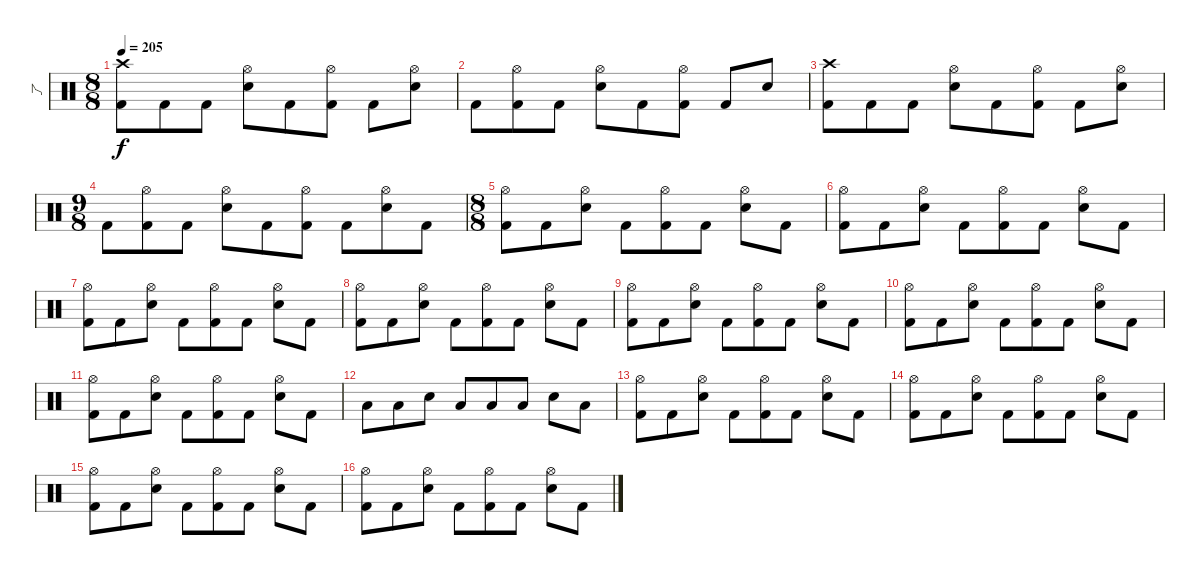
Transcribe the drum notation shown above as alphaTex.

\track ("了" "了") {instrument percussion}
\staff {score}
\articulation defaults
\ts (8 8)
\tempo 205
\clef neutral
\ks c
("Crash high (hit)" "Kick (hit) 2").8{dy f} "Kick (hit) 2".8 "Kick (hit) 2".8 ("Hi-Hat (open)" "Electric Snare (hit)").8 "Kick (hit) 2".8 ("Hi-Hat (open)" "Kick (hit) 2").8 "Kick (hit) 2".8 ("Hi-Hat (open)" "Electric Snare (hit)").8 |
"Kick (hit) 2".8 ("Hi-Hat (open)" "Kick (hit) 2").8 "Kick (hit) 2".8 ("Hi-Hat (open)" "Electric Snare (hit)").8 "Kick (hit) 2".8 ("Hi-Hat (open)" "Kick (hit) 2").8 "Kick (hit) 2".8 "Electric Snare (hit)".8 |
("Crash high (hit)" "Kick (hit) 2").8 "Kick (hit) 2".8 "Kick (hit) 2".8 ("Hi-Hat (open)" "Electric Snare (hit)").8 "Kick (hit) 2".8 ("Hi-Hat (open)" "Kick (hit) 2").8 "Kick (hit) 2".8 ("Hi-Hat (open)" "Electric Snare (hit)").8 |
\ts (9 8)
"Kick (hit) 2".8 ("Hi-Hat (open)" "Kick (hit) 2").8 "Kick (hit) 2".8 ("Hi-Hat (open)" "Electric Snare (hit)").8 "Kick (hit) 2".8 ("Hi-Hat (open)" "Kick (hit) 2").8 "Kick (hit) 2".8 ("Hi-Hat (open)" "Electric Snare (hit)").8 "Kick (hit) 2".8 |
\ts (8 8)
("Hi-Hat (open)" "Kick (hit) 2").8 "Kick (hit) 2".8 ("Hi-Hat (open)" "Electric Snare (hit)").8 "Kick (hit) 2".8 ("Hi-Hat (open)" "Kick (hit) 2").8 "Kick (hit) 2".8 ("Hi-Hat (open)" "Electric Snare (hit)").8 "Kick (hit) 2".8 |
("Hi-Hat (open)" "Kick (hit) 2").8 "Kick (hit) 2".8 ("Hi-Hat (open)" "Electric Snare (hit)").8 "Kick (hit) 2".8 ("Hi-Hat (open)" "Kick (hit) 2").8 "Kick (hit) 2".8 ("Hi-Hat (open)" "Electric Snare (hit)").8 "Kick (hit) 2".8 |
("Hi-Hat (open)" "Kick (hit) 2").8 "Kick (hit) 2".8 ("Hi-Hat (open)" "Electric Snare (hit)").8 "Kick (hit) 2".8 ("Hi-Hat (open)" "Kick (hit) 2").8 "Kick (hit) 2".8 ("Hi-Hat (open)" "Electric Snare (hit)").8 "Kick (hit) 2".8 |
("Hi-Hat (open)" "Kick (hit) 2").8 "Kick (hit) 2".8 ("Hi-Hat (open)" "Electric Snare (hit)").8 "Kick (hit) 2".8 ("Hi-Hat (open)" "Kick (hit) 2").8 "Kick (hit) 2".8 ("Hi-Hat (open)" "Electric Snare (hit)").8 "Kick (hit) 2".8 |
("Hi-Hat (open)" "Kick (hit) 2").8 "Kick (hit) 2".8 ("Hi-Hat (open)" "Electric Snare (hit)").8 "Kick (hit) 2".8 ("Hi-Hat (open)" "Kick (hit) 2").8 "Kick (hit) 2".8 ("Hi-Hat (open)" "Electric Snare (hit)").8 "Kick (hit) 2".8 |
("Hi-Hat (open)" "Kick (hit) 2").8 "Kick (hit) 2".8 ("Hi-Hat (open)" "Electric Snare (hit)").8 "Kick (hit) 2".8 ("Hi-Hat (open)" "Kick (hit) 2").8 "Kick (hit) 2".8 ("Hi-Hat (open)" "Electric Snare (hit)").8 "Kick (hit) 2".8 |
("Hi-Hat (open)" "Kick (hit) 2").8 "Kick (hit) 2".8 ("Hi-Hat (open)" "Electric Snare (hit)").8 "Kick (hit) 2".8 ("Hi-Hat (open)" "Kick (hit) 2").8 "Kick (hit) 2".8 ("Hi-Hat (open)" "Electric Snare (hit)").8 "Kick (hit) 2".8 |
"Low Tom (hit)".8 "Low Tom (hit)".8 "Electric Snare (hit)".8 "Low Tom (hit)".8 "Low Tom (hit)".8 "Low Tom (hit)".8 "Electric Snare (hit)".8 "Low Tom (hit)".8 |
("Hi-Hat (open)" "Kick (hit) 2").8 "Kick (hit) 2".8 ("Hi-Hat (open)" "Electric Snare (hit)").8 "Kick (hit) 2".8 ("Hi-Hat (open)" "Kick (hit) 2").8 "Kick (hit) 2".8 ("Hi-Hat (open)" "Electric Snare (hit)").8 "Kick (hit) 2".8 |
("Hi-Hat (open)" "Kick (hit) 2").8 "Kick (hit) 2".8 ("Hi-Hat (open)" "Electric Snare (hit)").8 "Kick (hit) 2".8 ("Hi-Hat (open)" "Kick (hit) 2").8 "Kick (hit) 2".8 ("Hi-Hat (open)" "Electric Snare (hit)").8 "Kick (hit) 2".8 |
("Hi-Hat (open)" "Kick (hit) 2").8 "Kick (hit) 2".8 ("Hi-Hat (open)" "Electric Snare (hit)").8 "Kick (hit) 2".8 ("Hi-Hat (open)" "Kick (hit) 2").8 "Kick (hit) 2".8 ("Hi-Hat (open)" "Electric Snare (hit)").8 "Kick (hit) 2".8 |
("Hi-Hat (open)" "Kick (hit) 2").8 "Kick (hit) 2".8 ("Hi-Hat (open)" "Electric Snare (hit)").8 "Kick (hit) 2".8 ("Hi-Hat (open)" "Kick (hit) 2").8 "Kick (hit) 2".8 ("Hi-Hat (open)" "Electric Snare (hit)").8 "Kick (hit) 2".8
